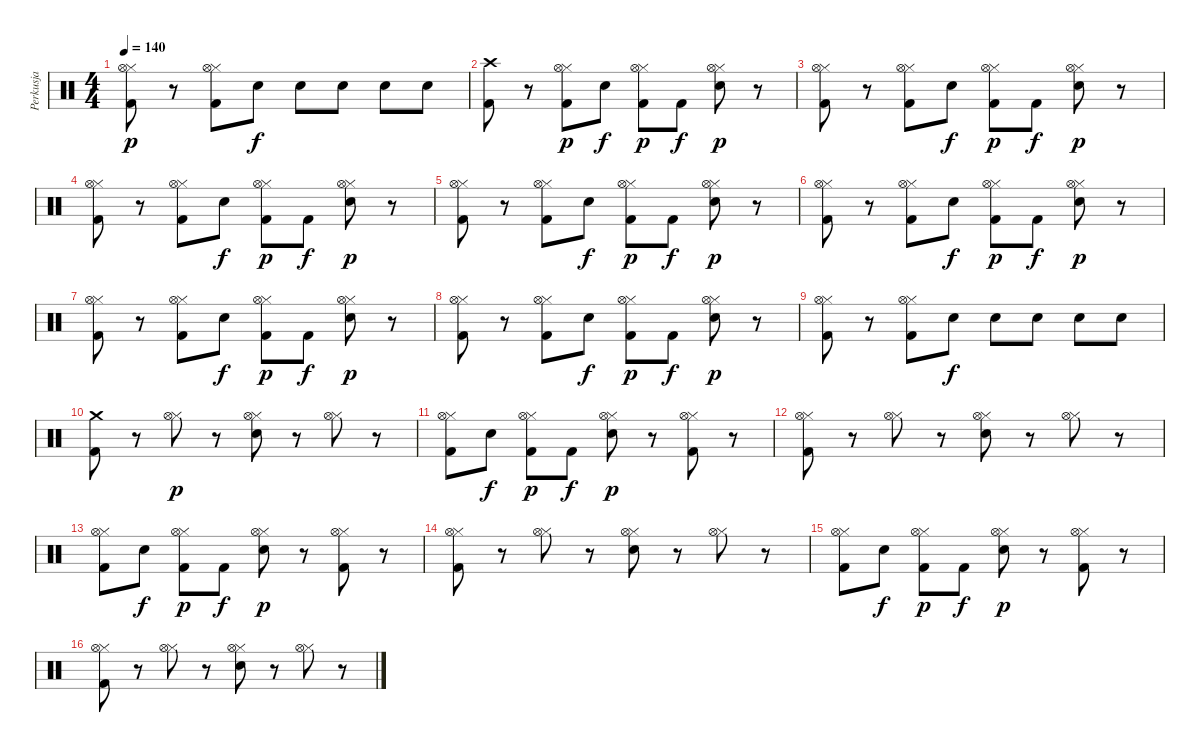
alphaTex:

\track ("Perkusja" "Perkusja") {instrument percussion}
\staff {score}
\articulation defaults
\ts (4 4)
\tempo 140
\clef neutral
\ks c
("Kick (hit) 2" "Hi-Hat (closed)" "Hi-Hat (open)").8{dy p} r.8 ("Kick (hit) 2" "Hi-Hat (closed)" "Hi-Hat (open)").8 "Electric Snare (hit)".8{dy f} "Electric Snare (hit)".8 "Electric Snare (hit)".8 "Electric Snare (hit)".8 "Electric Snare (hit)".8 |
("Kick (hit) 2" "Crash high (hit)").8 r.8 ("Kick (hit) 2" "Hi-Hat (closed)" "Hi-Hat (open)").8{dy p} "Electric Snare (hit)".8{dy f} ("Kick (hit) 2" "Hi-Hat (closed)" "Hi-Hat (open)").8{dy p} "Kick (hit) 2".8{dy f} ("Electric Snare (hit)" "Hi-Hat (closed)" "Hi-Hat (open)").8{dy p} r.8 |
("Kick (hit) 2" "Hi-Hat (closed)" "Hi-Hat (open)").8 r.8 ("Kick (hit) 2" "Hi-Hat (closed)" "Hi-Hat (open)").8 "Electric Snare (hit)".8{dy f} ("Kick (hit) 2" "Hi-Hat (closed)" "Hi-Hat (open)").8{dy p} "Kick (hit) 2".8{dy f} ("Electric Snare (hit)" "Hi-Hat (closed)" "Hi-Hat (open)").8{dy p} r.8 |
("Kick (hit) 2" "Hi-Hat (closed)" "Hi-Hat (open)").8 r.8 ("Kick (hit) 2" "Hi-Hat (closed)" "Hi-Hat (open)").8 "Electric Snare (hit)".8{dy f} ("Kick (hit) 2" "Hi-Hat (closed)" "Hi-Hat (open)").8{dy p} "Kick (hit) 2".8{dy f} ("Electric Snare (hit)" "Hi-Hat (closed)" "Hi-Hat (open)").8{dy p} r.8 |
("Kick (hit) 2" "Hi-Hat (closed)" "Hi-Hat (open)").8 r.8 ("Kick (hit) 2" "Hi-Hat (closed)" "Hi-Hat (open)").8 "Electric Snare (hit)".8{dy f} ("Kick (hit) 2" "Hi-Hat (closed)" "Hi-Hat (open)").8{dy p} "Kick (hit) 2".8{dy f} ("Electric Snare (hit)" "Hi-Hat (closed)" "Hi-Hat (open)").8{dy p} r.8 |
("Kick (hit) 2" "Hi-Hat (closed)" "Hi-Hat (open)").8 r.8 ("Kick (hit) 2" "Hi-Hat (closed)" "Hi-Hat (open)").8 "Electric Snare (hit)".8{dy f} ("Kick (hit) 2" "Hi-Hat (closed)" "Hi-Hat (open)").8{dy p} "Kick (hit) 2".8{dy f} ("Electric Snare (hit)" "Hi-Hat (closed)" "Hi-Hat (open)").8{dy p} r.8 |
("Kick (hit) 2" "Hi-Hat (closed)" "Hi-Hat (open)").8 r.8 ("Kick (hit) 2" "Hi-Hat (closed)" "Hi-Hat (open)").8 "Electric Snare (hit)".8{dy f} ("Kick (hit) 2" "Hi-Hat (closed)" "Hi-Hat (open)").8{dy p} "Kick (hit) 2".8{dy f} ("Electric Snare (hit)" "Hi-Hat (closed)" "Hi-Hat (open)").8{dy p} r.8 |
("Kick (hit) 2" "Hi-Hat (closed)" "Hi-Hat (open)").8 r.8 ("Kick (hit) 2" "Hi-Hat (closed)" "Hi-Hat (open)").8 "Electric Snare (hit)".8{dy f} ("Kick (hit) 2" "Hi-Hat (closed)" "Hi-Hat (open)").8{dy p} "Kick (hit) 2".8{dy f} ("Electric Snare (hit)" "Hi-Hat (closed)" "Hi-Hat (open)").8{dy p} r.8 |
("Kick (hit) 2" "Hi-Hat (closed)" "Hi-Hat (open)").8 r.8 ("Kick (hit) 2" "Hi-Hat (closed)" "Hi-Hat (open)").8 "Electric Snare (hit)".8{dy f} "Electric Snare (hit)".8 "Electric Snare (hit)".8 "Electric Snare (hit)".8 "Electric Snare (hit)".8 |
("Kick (hit) 2" "Crash medium (hit)").8 r.8 ("Hi-Hat (closed)" "Hi-Hat (open)").8{dy p} r.8 ("Electric Snare (hit)" "Hi-Hat (closed)" "Hi-Hat (open)").8 r.8 ("Hi-Hat (closed)" "Hi-Hat (open)").8 r.8 |
("Kick (hit) 2" "Hi-Hat (closed)" "Hi-Hat (open)").8 "Electric Snare (hit)".8{dy f} ("Kick (hit) 2" "Hi-Hat (closed)" "Hi-Hat (open)").8{dy p} "Kick (hit) 2".8{dy f} ("Electric Snare (hit)" "Hi-Hat (closed)" "Hi-Hat (open)").8{dy p} r.8 ("Kick (hit) 2" "Hi-Hat (closed)" "Hi-Hat (open)").8 r.8 |
("Kick (hit) 2" "Hi-Hat (closed)" "Hi-Hat (open)").8 r.8 ("Hi-Hat (closed)" "Hi-Hat (open)").8 r.8 ("Electric Snare (hit)" "Hi-Hat (closed)" "Hi-Hat (open)").8 r.8 ("Hi-Hat (closed)" "Hi-Hat (open)").8 r.8 |
("Kick (hit) 2" "Hi-Hat (closed)" "Hi-Hat (open)").8 "Electric Snare (hit)".8{dy f} ("Kick (hit) 2" "Hi-Hat (closed)" "Hi-Hat (open)").8{dy p} "Kick (hit) 2".8{dy f} ("Electric Snare (hit)" "Hi-Hat (closed)" "Hi-Hat (open)").8{dy p} r.8 ("Kick (hit) 2" "Hi-Hat (closed)" "Hi-Hat (open)").8 r.8 |
("Kick (hit) 2" "Hi-Hat (closed)" "Hi-Hat (open)").8 r.8 ("Hi-Hat (closed)" "Hi-Hat (open)").8 r.8 ("Electric Snare (hit)" "Hi-Hat (closed)" "Hi-Hat (open)").8 r.8 ("Hi-Hat (closed)" "Hi-Hat (open)").8 r.8 |
("Kick (hit) 2" "Hi-Hat (closed)" "Hi-Hat (open)").8 "Electric Snare (hit)".8{dy f} ("Kick (hit) 2" "Hi-Hat (closed)" "Hi-Hat (open)").8{dy p} "Kick (hit) 2".8{dy f} ("Electric Snare (hit)" "Hi-Hat (closed)" "Hi-Hat (open)").8{dy p} r.8 ("Kick (hit) 2" "Hi-Hat (closed)" "Hi-Hat (open)").8 r.8 |
("Kick (hit) 2" "Hi-Hat (closed)" "Hi-Hat (open)").8 r.8 ("Hi-Hat (closed)" "Hi-Hat (open)").8 r.8 ("Electric Snare (hit)" "Hi-Hat (closed)" "Hi-Hat (open)").8 r.8 ("Hi-Hat (closed)" "Hi-Hat (open)").8 r.8
